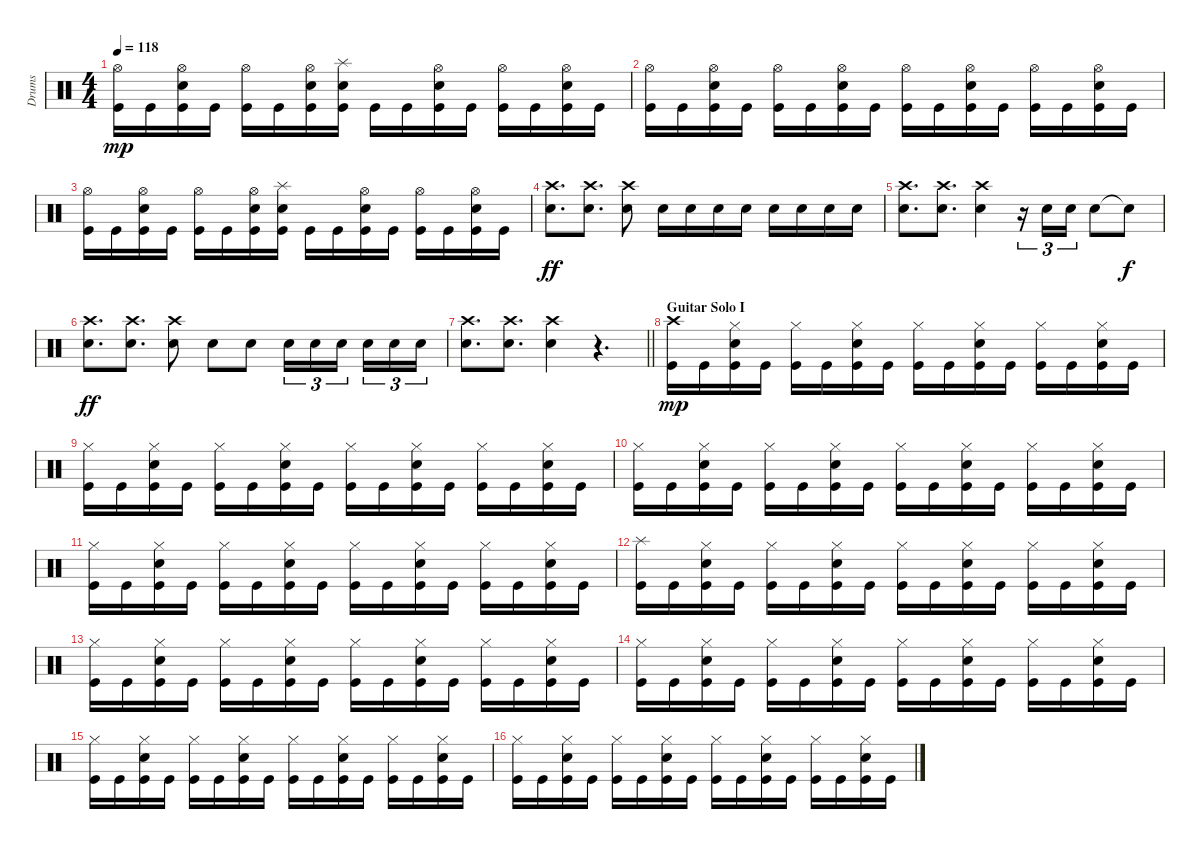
\track ("Drums" "Drums") {instrument percussion}
\staff {score}
\articulation defaults
\ts (4 4)
\tempo 118
\clef neutral
\ks c
("Hi-Hat (open)" "Kick (hit)").16{dy mp} "Kick (hit)".16 ("Hi-Hat (open)" "Electric Snare (hit)" "Kick (hit)").16 "Kick (hit)".16 ("Hi-Hat (open)" "Kick (hit)").16 "Kick (hit)".16 ("Hi-Hat (open)" "Electric Snare (hit)" "Kick (hit)").16 ("Splash (hit)" "Electric Snare (hit)" "Kick (hit)").16 "Kick (hit)".16 "Kick (hit)".16 ("Hi-Hat (open)" "Electric Snare (hit)" "Kick (hit)").16 "Kick (hit)".16 ("Hi-Hat (open)" "Kick (hit)").16 "Kick (hit)".16 ("Hi-Hat (open)" "Electric Snare (hit)" "Kick (hit)").16 "Kick (hit)".16 |
("Hi-Hat (open)" "Kick (hit)").16 "Kick (hit)".16 ("Hi-Hat (open)" "Electric Snare (hit)" "Kick (hit)").16 "Kick (hit)".16 ("Hi-Hat (open)" "Kick (hit)").16 "Kick (hit)".16 ("Hi-Hat (open)" "Electric Snare (hit)" "Kick (hit)").16 "Kick (hit)".16 ("Hi-Hat (open)" "Kick (hit)").16 "Kick (hit)".16 ("Hi-Hat (open)" "Electric Snare (hit)" "Kick (hit)").16 "Kick (hit)".16 ("Hi-Hat (open)" "Kick (hit)").16 "Kick (hit)".16 ("Hi-Hat (open)" "Electric Snare (hit)" "Kick (hit)").16 "Kick (hit)".16 |
("Hi-Hat (open)" "Kick (hit)").16 "Kick (hit)".16 ("Hi-Hat (open)" "Electric Snare (hit)" "Kick (hit)").16 "Kick (hit)".16 ("Hi-Hat (open)" "Kick (hit)").16 "Kick (hit)".16 ("Hi-Hat (open)" "Electric Snare (hit)" "Kick (hit)").16 ("Splash (hit)" "Electric Snare (hit)" "Kick (hit)").16 "Kick (hit)".16 "Kick (hit)".16 ("Hi-Hat (open)" "Electric Snare (hit)" "Kick (hit)").16 "Kick (hit)".16 ("Hi-Hat (open)" "Kick (hit)").16 "Kick (hit)".16 ("Hi-Hat (open)" "Electric Snare (hit)" "Kick (hit)").16 "Kick (hit)".16 |
("Crash high (hit)" "Electric Snare (hit)").8{d dy ff} ("Crash high (hit)" "Electric Snare (hit)").8{d} ("Crash high (hit)" "Electric Snare (hit)").8 "Electric Snare (hit)".16 "Electric Snare (hit)".16 "Electric Snare (hit)".16 "Electric Snare (hit)".16 "Snare (hit) 2".16 "Snare (hit) 2".16 "Snare (hit) 2".16 "Snare (hit) 2".16 |
("Crash high (hit)" "Electric Snare (hit)").8{d} ("Crash high (hit)" "Electric Snare (hit)").8{d} ("Crash high (hit)" "Electric Snare (hit)").4 r.16{tu (3 2)} "Snare (hit) 2".16{tu (3 2)} "Snare (hit) 2".16{tu (3 2)} "Electric Snare (hit)".8 "Snare (hit)"{t}.8{dy f} |
("Crash high (hit)" "Electric Snare (hit)").8{d dy ff} ("Crash high (hit)" "Electric Snare (hit)").8{d} ("Crash high (hit)" "Electric Snare (hit)").8 "Electric Snare (hit)".8 "Electric Snare (hit)".8 "Snare (hit) 2".16{tu (3 2)} "Snare (hit) 2".16{tu (3 2)} "Snare (hit) 2".16{tu (3 2)} "Snare (hit) 2".16{tu (3 2)} "Snare (hit) 2".16{tu (3 2)} "Snare (hit) 2".16{tu (3 2)} |
\barLineRight lightlight
("Crash high (hit)" "Electric Snare (hit)").8{d} ("Crash high (hit)" "Electric Snare (hit)").8{d} ("Crash high (hit)" "Electric Snare (hit)").4 r.4{d} |
\section ("" "Guitar Solo I")
("Crash high (hit)" "Kick (hit)").16{dy mp} "Kick (hit)".16 ("Hi-Hat (closed)" "Electric Snare (hit)" "Kick (hit)").16 "Kick (hit)".16 ("Hi-Hat (closed)" "Kick (hit)").16 "Kick (hit)".16 ("Hi-Hat (closed)" "Electric Snare (hit)" "Kick (hit)").16 "Kick (hit)".16 ("Hi-Hat (closed)" "Kick (hit)").16 "Kick (hit)".16 ("Hi-Hat (closed)" "Electric Snare (hit)" "Kick (hit)").16 "Kick (hit)".16 ("Hi-Hat (closed)" "Kick (hit)").16 "Kick (hit)".16 ("Hi-Hat (closed)" "Electric Snare (hit)" "Kick (hit)").16 "Kick (hit)".16 |
("Hi-Hat (closed)" "Kick (hit)").16 "Kick (hit)".16 ("Hi-Hat (closed)" "Electric Snare (hit)" "Kick (hit)").16 "Kick (hit)".16 ("Hi-Hat (closed)" "Kick (hit)").16 "Kick (hit)".16 ("Hi-Hat (closed)" "Electric Snare (hit)" "Kick (hit)").16 "Kick (hit)".16 ("Hi-Hat (closed)" "Kick (hit)").16 "Kick (hit)".16 ("Hi-Hat (closed)" "Electric Snare (hit)" "Kick (hit)").16 "Kick (hit)".16 ("Hi-Hat (closed)" "Kick (hit)").16 "Kick (hit)".16 ("Hi-Hat (closed)" "Electric Snare (hit)" "Kick (hit)").16 "Kick (hit)".16 |
("Hi-Hat (closed)" "Kick (hit)").16 "Kick (hit)".16 ("Hi-Hat (closed)" "Electric Snare (hit)" "Kick (hit)").16 "Kick (hit)".16 ("Hi-Hat (closed)" "Kick (hit)").16 "Kick (hit)".16 ("Hi-Hat (closed)" "Electric Snare (hit)" "Kick (hit)").16 "Kick (hit)".16 ("Hi-Hat (closed)" "Kick (hit)").16 "Kick (hit)".16 ("Hi-Hat (closed)" "Electric Snare (hit)" "Kick (hit)").16 "Kick (hit)".16 ("Hi-Hat (closed)" "Kick (hit)").16 "Kick (hit)".16 ("Hi-Hat (closed)" "Electric Snare (hit)" "Kick (hit)").16 "Kick (hit)".16 |
("Hi-Hat (closed)" "Kick (hit)").16 "Kick (hit)".16 ("Hi-Hat (closed)" "Electric Snare (hit)" "Kick (hit)").16 "Kick (hit)".16 ("Hi-Hat (closed)" "Kick (hit)").16 "Kick (hit)".16 ("Hi-Hat (closed)" "Electric Snare (hit)" "Kick (hit)").16 "Kick (hit)".16 ("Hi-Hat (closed)" "Kick (hit)").16 "Kick (hit)".16 ("Hi-Hat (closed)" "Electric Snare (hit)" "Kick (hit)").16 "Kick (hit)".16 ("Hi-Hat (closed)" "Kick (hit)").16 "Kick (hit)".16 ("Hi-Hat (closed)" "Electric Snare (hit)" "Kick (hit)").16 "Kick (hit)".16 |
("Splash (hit)" "Kick (hit)").16 "Kick (hit)".16 ("Hi-Hat (closed)" "Electric Snare (hit)" "Kick (hit)").16 "Kick (hit)".16 ("Hi-Hat (closed)" "Kick (hit)").16 "Kick (hit)".16 ("Hi-Hat (closed)" "Electric Snare (hit)" "Kick (hit)").16 "Kick (hit)".16 ("Hi-Hat (closed)" "Kick (hit)").16 "Kick (hit)".16 ("Hi-Hat (closed)" "Electric Snare (hit)" "Kick (hit)").16 "Kick (hit)".16 ("Hi-Hat (closed)" "Kick (hit)").16 "Kick (hit)".16 ("Hi-Hat (closed)" "Electric Snare (hit)" "Kick (hit)").16 "Kick (hit)".16 |
("Hi-Hat (closed)" "Kick (hit)").16 "Kick (hit)".16 ("Hi-Hat (closed)" "Electric Snare (hit)" "Kick (hit)").16 "Kick (hit)".16 ("Hi-Hat (closed)" "Kick (hit)").16 "Kick (hit)".16 ("Hi-Hat (closed)" "Electric Snare (hit)" "Kick (hit)").16 "Kick (hit)".16 ("Hi-Hat (closed)" "Kick (hit)").16 "Kick (hit)".16 ("Hi-Hat (closed)" "Electric Snare (hit)" "Kick (hit)").16 "Kick (hit)".16 ("Hi-Hat (closed)" "Kick (hit)").16 "Kick (hit)".16 ("Hi-Hat (closed)" "Electric Snare (hit)" "Kick (hit)").16 "Kick (hit)".16 |
("Hi-Hat (closed)" "Kick (hit)").16 "Kick (hit)".16 ("Hi-Hat (closed)" "Electric Snare (hit)" "Kick (hit)").16 "Kick (hit)".16 ("Hi-Hat (closed)" "Kick (hit)").16 "Kick (hit)".16 ("Hi-Hat (closed)" "Electric Snare (hit)" "Kick (hit)").16 "Kick (hit)".16 ("Hi-Hat (closed)" "Kick (hit)").16 "Kick (hit)".16 ("Hi-Hat (closed)" "Electric Snare (hit)" "Kick (hit)").16 "Kick (hit)".16 ("Hi-Hat (closed)" "Kick (hit)").16 "Kick (hit)".16 ("Hi-Hat (closed)" "Electric Snare (hit)" "Kick (hit)").16 "Kick (hit)".16 |
("Hi-Hat (closed)" "Kick (hit)").16 "Kick (hit)".16 ("Hi-Hat (closed)" "Electric Snare (hit)" "Kick (hit)").16 "Kick (hit)".16 ("Hi-Hat (closed)" "Kick (hit)").16 "Kick (hit)".16 ("Hi-Hat (closed)" "Electric Snare (hit)" "Kick (hit)").16 "Kick (hit)".16 ("Hi-Hat (closed)" "Kick (hit)").16 "Kick (hit)".16 ("Hi-Hat (closed)" "Electric Snare (hit)" "Kick (hit)").16 "Kick (hit)".16 ("Hi-Hat (closed)" "Kick (hit)").16 "Kick (hit)".16 ("Hi-Hat (closed)" "Electric Snare (hit)" "Kick (hit)").16 "Kick (hit)".16 |
("Hi-Hat (closed)" "Kick (hit)").16 "Kick (hit)".16 ("Hi-Hat (closed)" "Electric Snare (hit)" "Kick (hit)").16 "Kick (hit)".16 ("Hi-Hat (closed)" "Kick (hit)").16 "Kick (hit)".16 ("Hi-Hat (closed)" "Electric Snare (hit)" "Kick (hit)").16 "Kick (hit)".16 ("Hi-Hat (closed)" "Kick (hit)").16 "Kick (hit)".16 ("Hi-Hat (closed)" "Electric Snare (hit)" "Kick (hit)").16 "Kick (hit)".16 ("Hi-Hat (closed)" "Kick (hit)").16 "Kick (hit)".16 ("Hi-Hat (closed)" "Electric Snare (hit)" "Kick (hit)").16 "Kick (hit)".16
